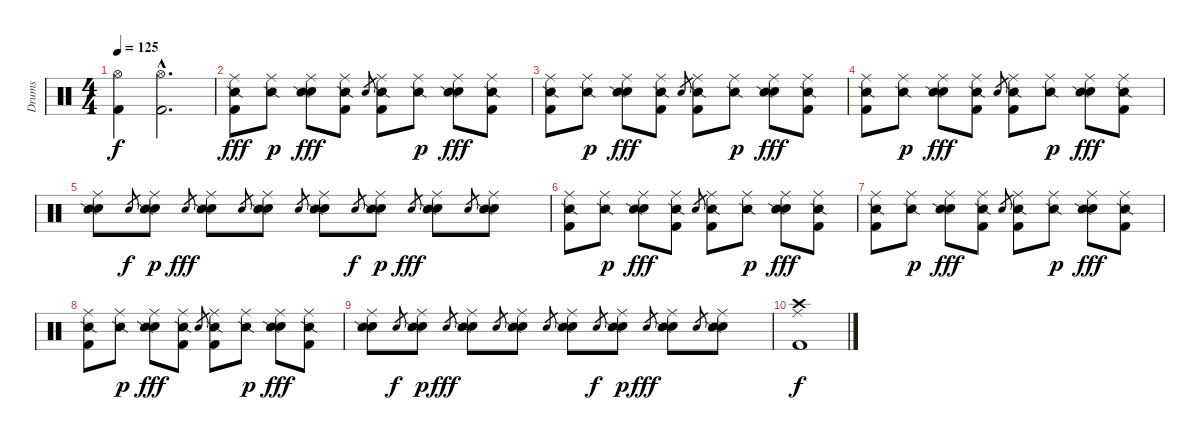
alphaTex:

\track ("Drums" "Drums") {instrument percussion}
\staff {score}
\articulation defaults
\ts (4 4)
\tempo 125
\clef neutral
\ks c
("Kick (hit) 2" "Hi-Hat (open)").4{dy f} ("Kick (hit) 2"{hac} "Hi-Hat (open)"{hac}).2{d} |
("Kick (hit) 2" "Snare (side stick) 2" "Ride (middle)").8{dy fff} ("Snare (side stick) 2" "Ride (middle)").8{dy p} ("Electric Snare (hit)" "Snare (side stick) 2" "Ride (middle)").8{dy fff} ("Kick (hit) 2" "Snare (side stick) 2" "Ride (middle)").8 "Electric Snare (hit)".8{gr} ("Kick (hit) 2" "Snare (side stick) 2" "Ride (middle)").8 ("Snare (side stick) 2" "Ride (middle)").8{dy p} ("Electric Snare (hit)" "Snare (side stick) 2" "Ride (middle)").8{dy fff} ("Kick (hit) 2" "Snare (side stick) 2" "Ride (middle)").8 |
("Kick (hit) 2" "Snare (side stick) 2" "Ride (middle)").8 ("Snare (side stick) 2" "Ride (middle)").8{dy p} ("Electric Snare (hit)" "Snare (side stick) 2" "Ride (middle)").8{dy fff} ("Kick (hit) 2" "Snare (side stick) 2" "Ride (middle)").8 "Electric Snare (hit)".8{gr} ("Kick (hit) 2" "Snare (side stick) 2" "Ride (middle)").8 ("Snare (side stick) 2" "Ride (middle)").8{dy p} ("Electric Snare (hit)" "Snare (side stick) 2" "Ride (middle)").8{dy fff} ("Kick (hit) 2" "Snare (side stick) 2" "Ride (middle)").8 |
("Kick (hit) 2" "Snare (side stick) 2" "Ride (middle)").8 ("Snare (side stick) 2" "Ride (middle)").8{dy p} ("Electric Snare (hit)" "Snare (side stick) 2" "Ride (middle)").8{dy fff} ("Kick (hit) 2" "Snare (side stick) 2" "Ride (middle)").8 "Electric Snare (hit)".8{gr} ("Kick (hit) 2" "Snare (side stick) 2" "Ride (middle)").8 ("Snare (side stick) 2" "Ride (middle)").8{dy p} ("Electric Snare (hit)" "Snare (side stick) 2" "Ride (middle)").8{dy fff} ("Kick (hit) 2" "Snare (side stick) 2" "Ride (middle)").8 |
("Electric Snare (hit)" "Snare (side stick) 2" "Ride (middle)").8 "Electric Snare (hit)".8{gr dy f} ("Electric Snare (hit)" "Snare (side stick) 2" "Ride (middle)").8{dy p} "Electric Snare (hit)".8{gr dy fff} ("Electric Snare (hit)" "Snare (side stick) 2" "Ride (middle)").8 "Electric Snare (hit)".8{gr} ("Electric Snare (hit)" "Snare (side stick) 2" "Ride (middle)").8 "Electric Snare (hit)".8{gr} ("Electric Snare (hit)" "Snare (side stick) 2" "Ride (middle)").8 "Electric Snare (hit)".8{gr dy f} ("Electric Snare (hit)" "Snare (side stick) 2" "Ride (middle)").8{dy p} "Electric Snare (hit)".8{gr dy fff} ("Electric Snare (hit)" "Snare (side stick) 2" "Ride (middle)").8 "Electric Snare (hit)".8{gr} ("Electric Snare (hit)" "Snare (side stick) 2" "Ride (middle)").8 |
("Kick (hit) 2" "Snare (side stick) 2" "Ride (middle)").8 ("Snare (side stick) 2" "Ride (middle)").8{dy p} ("Electric Snare (hit)" "Snare (side stick) 2" "Ride (middle)").8{dy fff} ("Kick (hit) 2" "Snare (side stick) 2" "Ride (middle)").8 "Electric Snare (hit)".8{gr} ("Kick (hit) 2" "Snare (side stick) 2" "Ride (middle)").8 ("Snare (side stick) 2" "Ride (middle)").8{dy p} ("Electric Snare (hit)" "Snare (side stick) 2" "Ride (middle)").8{dy fff} ("Kick (hit) 2" "Snare (side stick) 2" "Ride (middle)").8 |
("Kick (hit) 2" "Snare (side stick) 2" "Ride (middle)").8 ("Snare (side stick) 2" "Ride (middle)").8{dy p} ("Electric Snare (hit)" "Snare (side stick) 2" "Ride (middle)").8{dy fff} ("Kick (hit) 2" "Snare (side stick) 2" "Ride (middle)").8 "Electric Snare (hit)".8{gr} ("Kick (hit) 2" "Snare (side stick) 2" "Ride (middle)").8 ("Snare (side stick) 2" "Ride (middle)").8{dy p} ("Electric Snare (hit)" "Snare (side stick) 2" "Ride (middle)").8{dy fff} ("Kick (hit) 2" "Snare (side stick) 2" "Ride (middle)").8 |
("Kick (hit) 2" "Snare (side stick) 2" "Ride (middle)").8 ("Snare (side stick) 2" "Ride (middle)").8{dy p} ("Electric Snare (hit)" "Snare (side stick) 2" "Ride (middle)").8{dy fff} ("Kick (hit) 2" "Snare (side stick) 2" "Ride (middle)").8 "Electric Snare (hit)".8{gr} ("Kick (hit) 2" "Snare (side stick) 2" "Ride (middle)").8 ("Snare (side stick) 2" "Ride (middle)").8{dy p} ("Electric Snare (hit)" "Snare (side stick) 2" "Ride (middle)").8{dy fff} ("Kick (hit) 2" "Snare (side stick) 2" "Ride (middle)").8 |
("Electric Snare (hit)" "Snare (side stick) 2" "Ride (middle)").8 "Electric Snare (hit)".8{gr dy f} ("Electric Snare (hit)" "Snare (side stick) 2" "Ride (middle)").8{dy p} "Electric Snare (hit)".8{gr dy fff} ("Electric Snare (hit)" "Snare (side stick) 2" "Ride (middle)").8 "Electric Snare (hit)".8{gr} ("Electric Snare (hit)" "Snare (side stick) 2" "Ride (middle)").8 "Electric Snare (hit)".8{gr} ("Electric Snare (hit)" "Snare (side stick) 2" "Ride (middle)").8 "Electric Snare (hit)".8{gr dy f} ("Electric Snare (hit)" "Snare (side stick) 2" "Ride (middle)").8{dy p} "Electric Snare (hit)".8{gr dy fff} ("Electric Snare (hit)" "Snare (side stick) 2" "Ride (middle)").8 "Electric Snare (hit)".8{gr} ("Electric Snare (hit)" "Snare (side stick) 2" "Ride (middle)").8 |
("Kick (hit) 2" "Crash high (hit)" "Ride (middle)").1{dy f}
